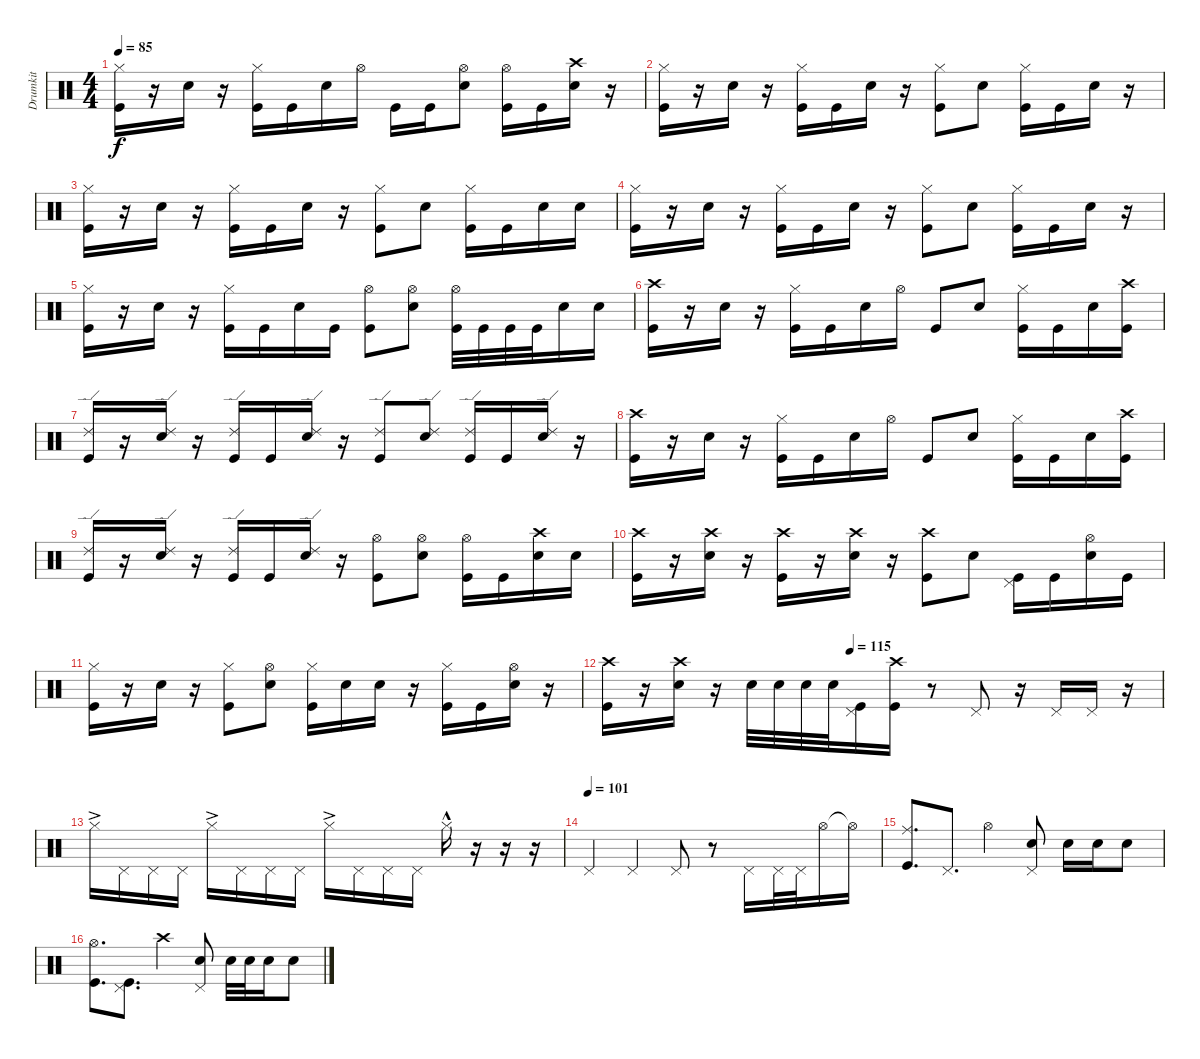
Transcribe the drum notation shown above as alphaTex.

\track ("Drumkit" "Drumkit") {instrument percussion}
\staff {score}
\articulation defaults
\ts (4 4)
\tempo 85
\clef neutral
\ks c
("Kick (hit)" "Hi-Hat (closed)").16{dy f} r.16 "Snare (hit) 2".16 r.16 ("Kick (hit)" "Hi-Hat (closed)").16 "Kick (hit)".16 "Snare (hit) 2".16 "Hi-Hat (open)".16 "Kick (hit)".16 "Kick (hit)".16 ("Snare (hit) 2" "Hi-Hat (open)").8 ("Kick (hit)" "Hi-Hat (open)").16 "Kick (hit)".16 ("Snare (hit) 2" "Crash high (hit)").16 r.16 |
("Kick (hit)" "Hi-Hat (closed)").16 r.16 "Snare (hit) 2".16 r.16 ("Kick (hit)" "Hi-Hat (closed)").16 "Kick (hit)".16 "Snare (hit) 2".16 r.16 ("Kick (hit)" "Hi-Hat (closed)").8 "Snare (hit) 2".8 ("Kick (hit)" "Hi-Hat (closed)").16 "Kick (hit)".16 "Snare (hit) 2".16 r.16 |
("Kick (hit)" "Hi-Hat (closed)").16 r.16 "Snare (hit) 2".16 r.16 ("Kick (hit)" "Hi-Hat (closed)").16 "Kick (hit)".16 "Snare (hit) 2".16 r.16 ("Kick (hit)" "Hi-Hat (closed)").8 "Snare (hit) 2".8 ("Kick (hit)" "Hi-Hat (closed)").16 "Kick (hit)".16 "Snare (hit) 2".16 "Snare (hit) 2".16 |
("Kick (hit)" "Hi-Hat (closed)").16 r.16 "Snare (hit) 2".16 r.16 ("Kick (hit)" "Hi-Hat (closed)").16 "Kick (hit)".16 "Snare (hit) 2".16 r.16 ("Kick (hit)" "Hi-Hat (closed)").8 "Snare (hit) 2".8 ("Kick (hit)" "Hi-Hat (closed)").16 "Kick (hit)".16 "Snare (hit) 2".16 r.16 |
("Kick (hit)" "Hi-Hat (closed)").16 r.16 "Snare (hit) 2".16 r.16 ("Kick (hit)" "Hi-Hat (closed)").16 "Kick (hit)".16 "Snare (hit) 2".16 "Kick (hit)".16 ("Kick (hit)" "Hi-Hat (open)").8 ("Snare (hit) 2" "Hi-Hat (open)").8 ("Kick (hit)" "Hi-Hat (open)").32 "Kick (hit)".32 "Kick (hit)".32 "Kick (hit)".32 "Snare (hit) 2".16 "Snare (hit) 2".16 |
("Kick (hit)" "Crash high (hit)").16 r.16 "Snare (hit) 2".16 r.16 ("Kick (hit)" "Hi-Hat (closed)").16 "Kick (hit)".16 "Snare (hit) 2".16 "Hi-Hat (open)".16 "Kick (hit)".8 "Snare (hit) 2".8 ("Kick (hit)" "Hi-Hat (closed)").16 "Kick (hit)".16 "Snare (hit) 2".16 ("Kick (hit)" "Crash high (hit)").16 |
("Ride (edge) 2" "Kick (hit)").16 r.16 ("Ride (edge) 2" "Snare (hit) 2").16 r.16 ("Ride (edge) 2" "Kick (hit)").16 "Kick (hit)".16 ("Ride (edge) 2" "Snare (hit) 2").16 r.16 ("Ride (edge) 2" "Kick (hit)").8 ("Ride (edge) 2" "Snare (hit) 2").8 ("Ride (edge) 2" "Kick (hit)").16 "Kick (hit)".16 ("Ride (edge) 2" "Snare (hit) 2").16 r.16 |
("Kick (hit)" "Crash high (hit)").16 r.16 "Snare (hit) 2".16 r.16 ("Kick (hit)" "Hi-Hat (closed)").16 "Kick (hit)".16 "Snare (hit) 2".16 "Hi-Hat (open)".16 "Kick (hit)".8 "Snare (hit) 2".8 ("Kick (hit)" "Hi-Hat (closed)").16 "Kick (hit)".16 "Snare (hit) 2".16 ("Kick (hit)" "Crash high (hit)").16 |
("Ride (edge) 2" "Kick (hit)").16 r.16 ("Ride (edge) 2" "Snare (hit) 2").16 r.16 ("Ride (edge) 2" "Kick (hit)").16 "Kick (hit)".16 ("Ride (edge) 2" "Snare (hit) 2").16 r.16 ("Kick (hit)" "Hi-Hat (open)").8 ("Snare (hit) 2" "Hi-Hat (open)").8 ("Kick (hit)" "Hi-Hat (open)").16 "Kick (hit)".16 ("Snare (hit) 2" "Crash high (hit)").16 "Snare (hit) 2".16 |
("Kick (hit)" "Crash high (hit)").16 r.16 ("Snare (hit) 2" "Crash high (hit)").16 r.16 ("Kick (hit)" "Crash high (hit)").16 r.16 ("Snare (hit) 2" "Crash high (hit)").16 r.16 ("Kick (hit)" "Crash high (hit)").8 "Snare (hit) 2".8 ("Kick (hit)" "Pedal Hi-Hat (hit)").16 "Kick (hit)".16 ("Hi-Hat (open)" "Snare (hit) 2").16 "Kick (hit)".16 |
("Kick (hit)" "Hi-Hat (closed)").16 r.16 "Snare (hit) 2".16 r.16 ("Kick (hit)" "Hi-Hat (closed)").8 ("Snare (hit) 2" "Hi-Hat (open)").8 ("Kick (hit)" "Hi-Hat (closed)").16 "Snare (hit) 2".16 "Snare (hit) 2".16 r.16 ("Kick (hit)" "Hi-Hat (closed)").16 "Kick (hit)".16 ("Snare (hit) 2" "Hi-Hat (open)").16 r.16 |
\tempo (115 0.4375)
("Kick (hit)" "Crash high (hit)").16 r.16 ("Crash high (hit)" "Snare (hit) 2").16 r.16 "Snare (hit) 2".32 "Snare (hit) 2".32 "Snare (hit) 2".32 "Snare (hit) 2".32 ("Kick (hit)" "Pedal Hi-Hat (hit)").16 ("Kick (hit)" "Crash high (hit)").16 r.8 "Pedal Hi-Hat (hit)".8 r.16 "Pedal Hi-Hat (hit)".16 "Pedal Hi-Hat (hit)".16 r.16 |
"Hi-Hat (closed)"{ac}.16 "Pedal Hi-Hat (hit)".16 "Pedal Hi-Hat (hit)".16 "Pedal Hi-Hat (hit)".16 "Hi-Hat (closed)"{ac}.16 "Pedal Hi-Hat (hit)".16 "Pedal Hi-Hat (hit)".16 "Pedal Hi-Hat (hit)".16 "Hi-Hat (closed)"{ac}.16 "Pedal Hi-Hat (hit)".16 "Pedal Hi-Hat (hit)".16 "Pedal Hi-Hat (hit)".16 "Hi-Hat (closed)"{hac}.16 r.16 r.16 r.16 |
\tempo (101)
"Pedal Hi-Hat (hit)".4 "Pedal Hi-Hat (hit)".4 "Pedal Hi-Hat (hit)".8 r.8 "Pedal Hi-Hat (hit)".16 "Pedal Hi-Hat (hit)".32 "Pedal Hi-Hat (hit)".32 "Hi-Hat (open)".16 "Hi-Hat (open)"{t}.16 |
("Kick (hit)" "Ride (middle)").8{d} "Pedal Hi-Hat (hit)".8{d} "Hi-Hat (open)".4 ("Snare (hit) 2" "Pedal Hi-Hat (hit)").8 "Snare (hit) 2".16 "Snare (hit) 2".16 "Snare (hit) 2".8 |
("Kick (hit)" "Hi-Hat (open)").8{d} ("Kick (hit)" "Pedal Hi-Hat (hit)").8{d} "Crash high (hit)".4 ("Snare (hit) 2" "Pedal Hi-Hat (hit)").8 "Snare (hit) 2".32 "Snare (hit) 2".32 "Snare (hit) 2".16 "Snare (hit) 2".8
